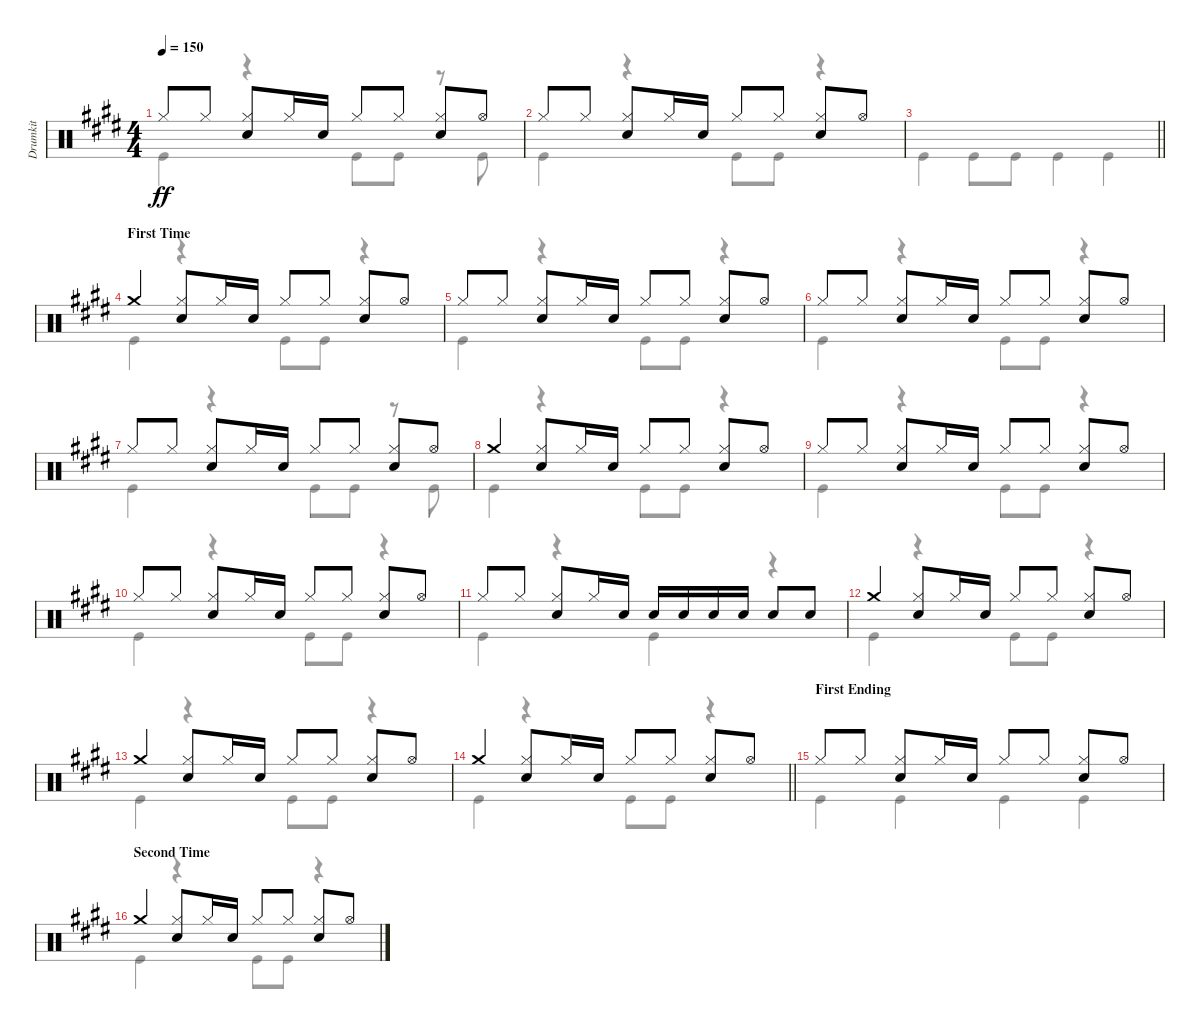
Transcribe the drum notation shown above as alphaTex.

\track ("Drumkit" "Drumkit") {instrument percussion}
\staff {score}
\articulation defaults
\voice
\ts (4 4)
\tempo 150
\clef neutral
\ks e "Hi-Hat (closed)".8{dy ff} "Hi-Hat (closed)".8
("Hi-Hat (closed)" "Snare (hit) 2").8 "Hi-Hat (closed)".16 "Snare (hit) 2".16 "Hi-Hat (closed)".8 "Hi-Hat (closed)".8 ("Hi-Hat (closed)" "Snare (hit) 2").8 "Hi-Hat (open)".8 |
"Hi-Hat (closed)".8 "Hi-Hat (closed)".8 ("Hi-Hat (closed)" "Snare (hit) 2").8 "Hi-Hat (closed)".16 "Snare (hit) 2".16 "Hi-Hat (closed)".8 "Hi-Hat (closed)".8 ("Hi-Hat (closed)" "Snare (hit) 2").8 "Hi-Hat (open)".8 |
\barLineRight lightlight
|
\section ("" "First Time")
"Crash medium (hit)".4 ("Hi-Hat (closed)" "Snare (hit) 2").8 "Hi-Hat (closed)".16 "Snare (hit) 2".16 "Hi-Hat (closed)".8 "Hi-Hat (closed)".8 ("Hi-Hat (closed)" "Snare (hit) 2").8 "Hi-Hat (open)".8 |
"Hi-Hat (closed)".8 "Hi-Hat (closed)".8 ("Hi-Hat (closed)" "Snare (hit) 2").8 "Hi-Hat (closed)".16 "Snare (hit) 2".16 "Hi-Hat (closed)".8 "Hi-Hat (closed)".8 ("Hi-Hat (closed)" "Snare (hit) 2").8 "Hi-Hat (open)".8 |
"Hi-Hat (closed)".8 "Hi-Hat (closed)".8 ("Hi-Hat (closed)" "Snare (hit) 2").8 "Hi-Hat (closed)".16 "Snare (hit) 2".16 "Hi-Hat (closed)".8 "Hi-Hat (closed)".8 ("Hi-Hat (closed)" "Snare (hit) 2").8 "Hi-Hat (open)".8 |
"Hi-Hat (closed)".8 "Hi-Hat (closed)".8 ("Hi-Hat (closed)" "Snare (hit) 2").8 "Hi-Hat (closed)".16 "Snare (hit) 2".16 "Hi-Hat (closed)".8 "Hi-Hat (closed)".8 ("Hi-Hat (closed)" "Snare (hit) 2").8 "Hi-Hat (open)".8 |
"Crash medium (hit)".4 ("Hi-Hat (closed)" "Snare (hit) 2").8 "Hi-Hat (closed)".16 "Snare (hit) 2".16 "Hi-Hat (closed)".8 "Hi-Hat (closed)".8 ("Hi-Hat (closed)" "Snare (hit) 2").8 "Hi-Hat (open)".8 |
"Hi-Hat (closed)".8 "Hi-Hat (closed)".8 ("Hi-Hat (closed)" "Snare (hit) 2").8 "Hi-Hat (closed)".16 "Snare (hit) 2".16 "Hi-Hat (closed)".8 "Hi-Hat (closed)".8 ("Hi-Hat (closed)" "Snare (hit) 2").8 "Hi-Hat (open)".8 |
"Hi-Hat (closed)".8 "Hi-Hat (closed)".8 ("Hi-Hat (closed)" "Snare (hit) 2").8 "Hi-Hat (closed)".16 "Snare (hit) 2".16 "Hi-Hat (closed)".8 "Hi-Hat (closed)".8 ("Hi-Hat (closed)" "Snare (hit) 2").8 "Hi-Hat (open)".8 |
"Hi-Hat (closed)".8 "Hi-Hat (closed)".8 ("Hi-Hat (closed)" "Snare (hit) 2").8 "Hi-Hat (closed)".16 "Snare (hit) 2".16 "Snare (hit) 2".16 "Snare (hit) 2".16 "Snare (hit) 2".16 "Snare (hit) 2".16 "Snare (hit) 2".8 "Snare (hit) 2".8 |
"Crash medium (hit)".4 ("Hi-Hat (closed)" "Snare (hit) 2").8 "Hi-Hat (closed)".16 "Snare (hit) 2".16 "Hi-Hat (closed)".8 "Hi-Hat (closed)".8 ("Hi-Hat (closed)" "Snare (hit) 2").8 "Hi-Hat (open)".8 |
"Crash medium (hit)".4 ("Hi-Hat (closed)" "Snare (hit) 2").8 "Hi-Hat (closed)".16 "Snare (hit) 2".16 "Hi-Hat (closed)".8 "Hi-Hat (closed)".8 ("Hi-Hat (closed)" "Snare (hit) 2").8 "Hi-Hat (open)".8 |
\barLineRight lightlight "Crash medium (hit)".4
("Hi-Hat (closed)" "Snare (hit) 2").8 "Hi-Hat (closed)".16 "Snare (hit) 2".16 "Hi-Hat (closed)".8 "Hi-Hat (closed)".8 ("Hi-Hat (closed)" "Snare (hit) 2").8 "Hi-Hat (open)".8 |
\section ("" "First Ending")
"Hi-Hat (closed)".8 "Hi-Hat (closed)".8 ("Hi-Hat (closed)" "Snare (hit) 2").8 "Hi-Hat (closed)".16 "Snare (hit) 2".16 "Hi-Hat (closed)".8 "Hi-Hat (closed)".8 ("Hi-Hat (closed)" "Snare (hit) 2").8 "Hi-Hat (open)".8 |
\section ("" "Second Time")
"Crash medium (hit)".4 ("Hi-Hat (closed)" "Snare (hit) 2").8 "Hi-Hat (closed)".16 "Snare (hit) 2".16 "Hi-Hat (closed)".8 "Hi-Hat (closed)".8 ("Hi-Hat (closed)" "Snare (hit) 2").8 "Hi-Hat (open)".8
\voice
\clef neutral
\ottava regular
\simile none
\ks e "Kick (hit)".4{dy ff}
r.4 "Kick (hit)".8 "Kick (hit)".8 r.8 "Kick (hit)".8 |
"Kick (hit)".4 r.4 "Kick (hit)".8 "Kick (hit)".8 r.4 |
\barLineRight lightlight "Kick (hit)".4 "Kick (hit)".8 "Kick (hit)".8 "Kick (hit)".4 "Kick (hit)".4
|
"Kick (hit)".4 r.4 "Kick (hit)".8 "Kick (hit)".8 r.4 |
"Kick (hit)".4 r.4 "Kick (hit)".8 "Kick (hit)".8 r.4 |
"Kick (hit)".4 r.4 "Kick (hit)".8 "Kick (hit)".8 r.4 |
"Kick (hit)".4 r.4 "Kick (hit)".8 "Kick (hit)".8 r.8 "Kick (hit)".8 |
"Kick (hit)".4 r.4 "Kick (hit)".8 "Kick (hit)".8 r.4 |
"Kick (hit)".4 r.4 "Kick (hit)".8 "Kick (hit)".8 r.4 |
"Kick (hit)".4 r.4 "Kick (hit)".8 "Kick (hit)".8 r.4 |
"Kick (hit)".4 r.4 "Kick (hit)".4 r.4 |
"Kick (hit)".4 r.4 "Kick (hit)".8 "Kick (hit)".8 r.4 |
"Kick (hit)".4 r.4 "Kick (hit)".8 "Kick (hit)".8 r.4 |
\barLineRight lightlight "Kick (hit)".4
r.4 "Kick (hit)".8 "Kick (hit)".8 r.4 |
"Kick (hit)".4 "Kick (hit)".4 "Kick (hit)".4 "Kick (hit)".4 |
"Kick (hit)".4 r.4 "Kick (hit)".8 "Kick (hit)".8 r.4
